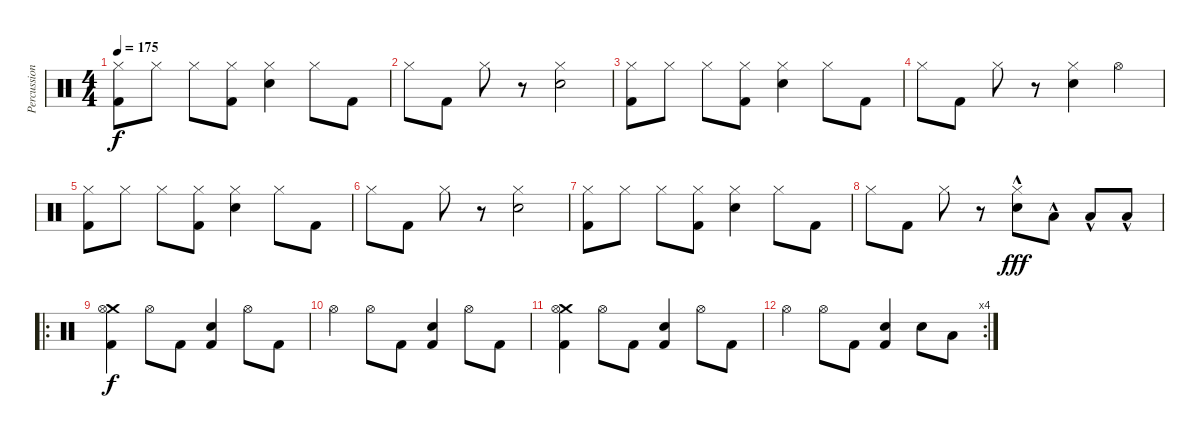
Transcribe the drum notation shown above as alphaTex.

\track ("Percussion" "Percussion") {instrument percussion}
\staff {score}
\articulation defaults
\ts (4 4)
\tempo 175
\clef neutral
\ks c
("Hi-Hat (closed)" "Kick (hit) 2").8{dy f} "Hi-Hat (closed)".8 "Hi-Hat (closed)".8 ("Hi-Hat (closed)" "Kick (hit) 2").8 ("Hi-Hat (closed)" "Snare (hit) 2").4 "Hi-Hat (closed)".8 "Kick (hit) 2".8 |
"Hi-Hat (closed)".8 "Kick (hit) 2".8 "Hi-Hat (closed)".8 r.8 ("Hi-Hat (closed)" "Snare (hit) 2").2 |
("Hi-Hat (closed)" "Kick (hit) 2").8 "Hi-Hat (closed)".8 "Hi-Hat (closed)".8 ("Hi-Hat (closed)" "Kick (hit) 2").8 ("Hi-Hat (closed)" "Snare (hit) 2").4 "Hi-Hat (closed)".8 "Kick (hit) 2".8 |
"Hi-Hat (closed)".8 "Kick (hit) 2".8 "Hi-Hat (closed)".8 r.8 ("Hi-Hat (closed)" "Snare (hit) 2").4 "Hi-Hat (open)".4 |
("Hi-Hat (closed)" "Kick (hit) 2").8 "Hi-Hat (closed)".8 "Hi-Hat (closed)".8 ("Hi-Hat (closed)" "Kick (hit) 2").8 ("Hi-Hat (closed)" "Snare (hit) 2").4 "Hi-Hat (closed)".8 "Kick (hit) 2".8 |
"Hi-Hat (closed)".8 "Kick (hit) 2".8 "Hi-Hat (closed)".8 r.8 ("Hi-Hat (closed)" "Snare (hit) 2").2 |
("Hi-Hat (closed)" "Kick (hit) 2").8 "Hi-Hat (closed)".8 "Hi-Hat (closed)".8 ("Hi-Hat (closed)" "Kick (hit) 2").8 ("Hi-Hat (closed)" "Snare (hit) 2").4 "Hi-Hat (closed)".8 "Kick (hit) 2".8 |
"Hi-Hat (closed)".8 "Kick (hit) 2".8 "Hi-Hat (closed)".8 r.8 ("Hi-Hat (closed)" "Snare (hit) 2"{hac}).8{dy fff} "Low Floor Tom (hit)"{hac}.8 "Low Floor Tom (hit)"{hac}.8 "Low Floor Tom (hit)"{hac}.8 |
\ro
("Crash medium (hit)" "Hi-Hat (open)" "Kick (hit) 2").4{dy f} "Hi-Hat (open)".8 "Kick (hit) 2".8 ("Kick (hit) 2" "Snare (hit) 2").4 "Hi-Hat (open)".8 "Kick (hit) 2".8 |
"Hi-Hat (open)".4 "Hi-Hat (open)".8 "Kick (hit) 2".8 ("Kick (hit) 2" "Snare (hit) 2").4 "Hi-Hat (open)".8 "Kick (hit) 2".8 |
("Crash medium (hit)" "Hi-Hat (open)" "Kick (hit) 2").4 "Hi-Hat (open)".8 "Kick (hit) 2".8 ("Kick (hit) 2" "Snare (hit) 2").4 "Hi-Hat (open)".8 "Kick (hit) 2".8 |
\rc 4 "Hi-Hat (open)".4 "Hi-Hat (open)".8 "Kick (hit) 2".8
("Kick (hit) 2" "Snare (hit) 2").4 "Snare (hit) 2".8 "Low Floor Tom (hit)".8
